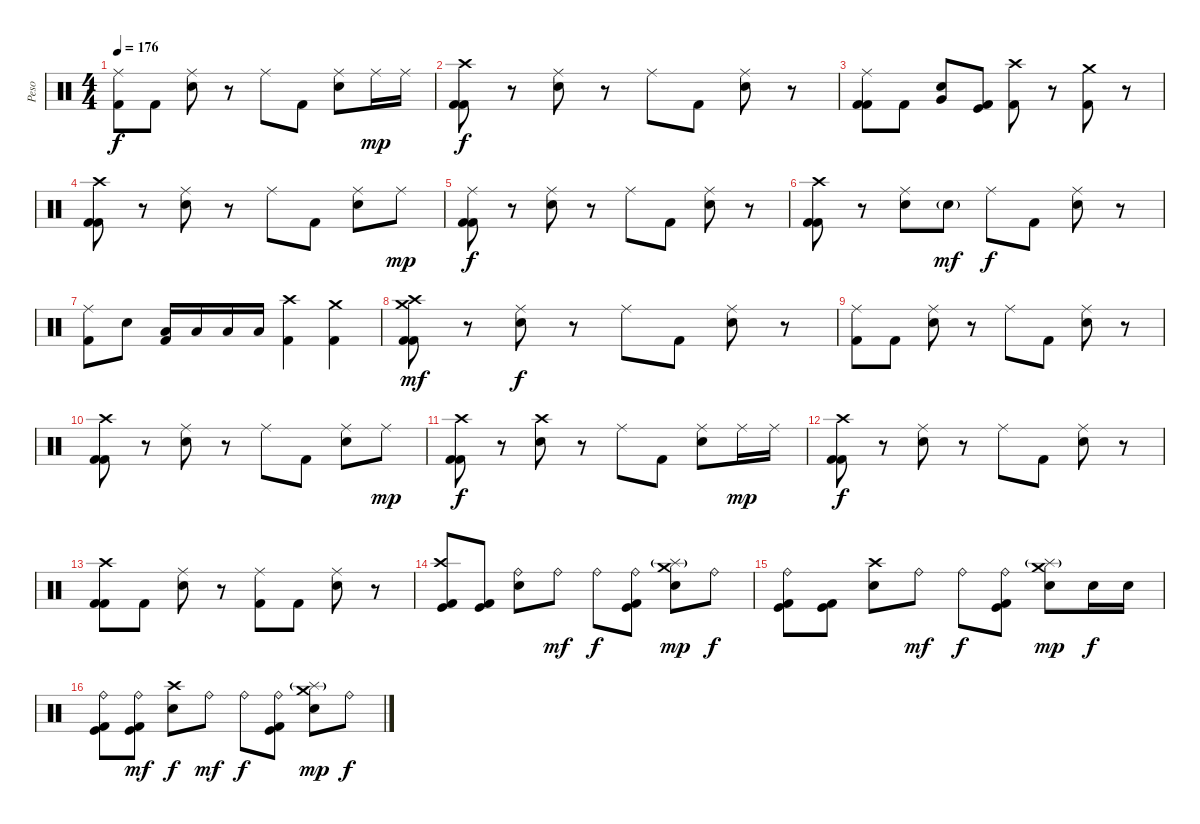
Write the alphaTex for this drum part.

\track ("Peso" "Peso") {instrument percussion}
\staff {score}
\articulation defaults
\ts (4 4)
\tempo 176
\clef neutral
\ks c
("Ride (middle)" "Kick (hit) 2").8{dy f} "Kick (hit) 2".8 ("Ride (middle)" "Electric Snare (hit)").8 r.8 "Ride (middle)".8 "Kick (hit) 2".8 ("Ride (middle)" "Electric Snare (hit)").8 "Ride (middle)".16{dy mp} "Ride (middle)".16 |
("Crash high (hit)" "Kick (hit) 2" "Kick (hit) 2").8{dy f} r.8 ("Ride (middle)" "Electric Snare (hit)").8 r.8 "Ride (middle)".8 "Kick (hit) 2".8 ("Ride (middle)" "Electric Snare (hit)").8 r.8 |
("Ride (middle)" "Kick (hit) 2" "Kick (hit) 2").8 "Kick (hit) 2".8 ("Very Low Tom (hit)" "Electric Snare (hit)").8 ("Kick (hit)" "Kick (hit) 2").8 ("Crash high (hit)" "Kick (hit) 2").8 r.8 ("Crash medium (hit)" "Kick (hit) 2").8 r.8 |
("Crash high (hit)" "Kick (hit) 2" "Kick (hit) 2").8 r.8 ("Ride (middle)" "Electric Snare (hit)").8 r.8 "Ride (middle)".8 "Kick (hit) 2".8 ("Ride (middle)" "Electric Snare (hit)").8 "Ride (middle)".8{dy mp} |
("Ride (middle)" "Kick (hit) 2" "Kick (hit) 2").8{dy f} r.8 ("Ride (middle)" "Electric Snare (hit)").8 r.8 "Ride (middle)".8 "Kick (hit) 2".8 ("Ride (middle)" "Electric Snare (hit)").8 r.8 |
("Crash high (hit)" "Kick (hit) 2" "Kick (hit) 2").8 r.8 ("Ride (middle)" "Electric Snare (hit)").8 "Electric Snare (hit)"{g}.8{dy mf} "Ride (middle)".8{dy f} "Kick (hit) 2".8 ("Ride (middle)" "Electric Snare (hit)").8 r.8 |
("Ride (middle)" "Kick (hit) 2").8 "Electric Snare (hit)".8 ("Low Tom (hit)" "Kick (hit) 2").16 "Low Tom (hit)".16 "Low Tom (hit)".16 "Low Tom (hit)".16 ("Crash high (hit)" "Kick (hit) 2").4 ("Crash medium (hit)" "Kick (hit) 2").4 |
("Crash high (hit)" "Crash medium (hit)" "Kick (hit) 2" "Kick (hit) 2").8{dy mf} r.8 ("Ride (middle)" "Electric Snare (hit)").8{dy f} r.8 "Ride (middle)".8 "Kick (hit) 2".8 ("Ride (middle)" "Electric Snare (hit)").8 r.8 |
("Ride (middle)" "Kick (hit) 2").8 "Kick (hit) 2".8 ("Ride (middle)" "Electric Snare (hit)").8 r.8 "Ride (middle)".8 "Kick (hit) 2".8 ("Ride (middle)" "Electric Snare (hit)").8 r.8 |
("Crash high (hit)" "Kick (hit) 2" "Kick (hit) 2").8 r.8 ("Ride (middle)" "Electric Snare (hit)").8 r.8 "Ride (middle)".8 "Kick (hit) 2".8 ("Ride (middle)" "Electric Snare (hit)").8 "Ride (middle)".8{dy mp} |
("Crash high (hit)" "Kick (hit) 2" "Kick (hit) 2").8{dy f} r.8 ("Crash high (hit)" "Electric Snare (hit)").8 r.8 "Ride (middle)".8 "Kick (hit) 2".8 ("Ride (middle)" "Electric Snare (hit)").8 "Ride (middle)".16{dy mp} "Ride (middle)".16 |
("Crash high (hit)" "Kick (hit) 2" "Kick (hit) 2").8{dy f} r.8 ("Ride (middle)" "Electric Snare (hit)").8 r.8 "Ride (middle)".8 "Kick (hit) 2".8 ("Ride (middle)" "Electric Snare (hit)").8 r.8 |
("Crash high (hit)" "Kick (hit) 2" "Kick (hit) 2").8 "Kick (hit) 2".8 ("Ride (middle)" "Electric Snare (hit)").8 r.8 ("Ride (middle)" "Kick (hit) 2").8 "Kick (hit) 2".8 ("Ride (middle)" "Electric Snare (hit)").8 r.8 |
("Crash high (hit)" "Kick (hit)" "Kick (hit) 2").8 ("Kick (hit)" "Kick (hit) 2").8 ("Ride (bell)" "Electric Snare (hit)").8 "Ride (bell)".8{dy mf} "Ride (bell)".8{dy f} ("Ride (bell)" "Kick (hit)" "Kick (hit) 2").8 ("Crash medium (hit)" "Splash (hit)"{g} "Electric Snare (hit)").8{dy mp} "Ride (bell)".8{dy f} |
("Ride (bell)" "Kick (hit)" "Kick (hit) 2").8 ("Kick (hit)" "Kick (hit) 2").8 ("Crash high (hit)" "Electric Snare (hit)").8 "Ride (bell)".8{dy mf} "Ride (bell)".8{dy f} ("Ride (bell)" "Kick (hit)" "Kick (hit) 2").8 ("Crash medium (hit)" "Splash (hit)"{g} "Electric Snare (hit)").8{dy mp} "Electric Snare (hit)".16{dy f} "Electric Snare (hit)".16 |
("Ride (bell)" "Kick (hit)" "Kick (hit) 2").8 ("Ride (bell)" "Kick (hit)" "Kick (hit) 2").8{dy mf} ("Crash high (hit)" "Electric Snare (hit)").8{dy f} "Ride (bell)".8{dy mf} "Ride (bell)".8{dy f} ("Ride (bell)" "Kick (hit)" "Kick (hit) 2").8 ("Crash medium (hit)" "Splash (hit)"{g} "Electric Snare (hit)").8{dy mp} "Ride (bell)".8{dy f}
